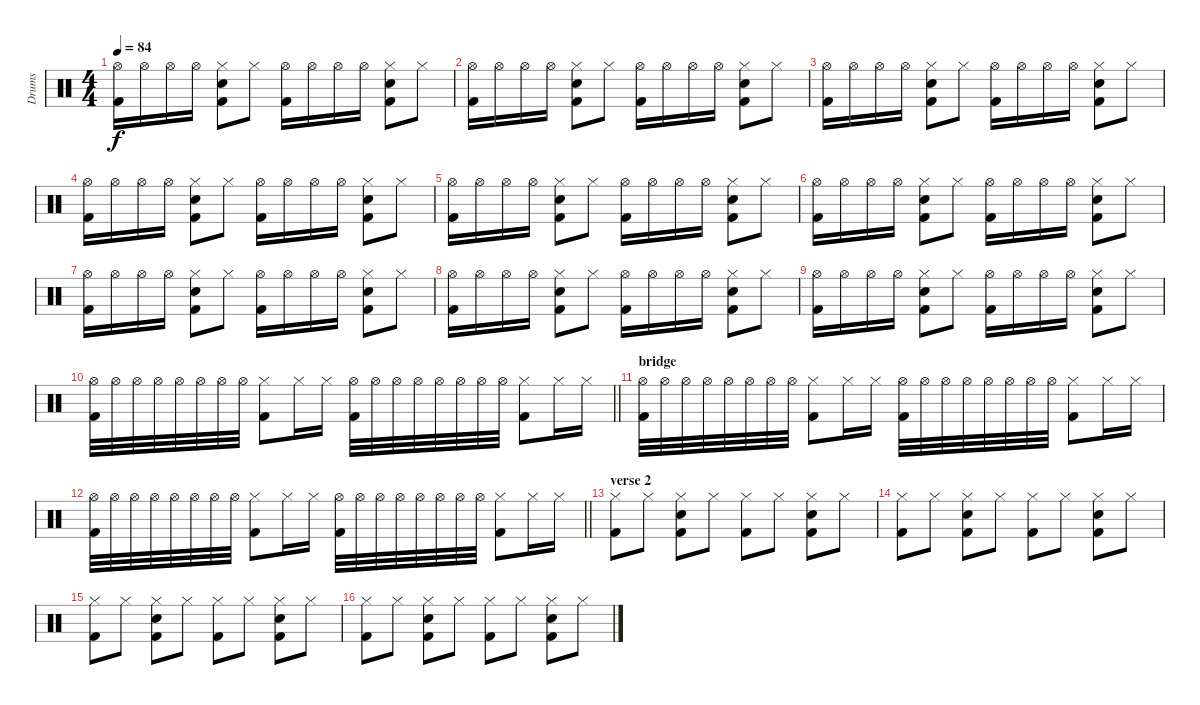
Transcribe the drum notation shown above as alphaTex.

\track ("Drums" "Drums") {instrument percussion}
\staff {score}
\articulation defaults
\ts (4 4)
\tempo 84
\clef neutral
\ks c
("Hi-Hat (open)" "Kick (hit) 2").16{dy f} "Hi-Hat (open)".16 "Hi-Hat (open)".16 "Hi-Hat (open)".16 ("Hi-Hat (closed)" "Snare (hit) 2" "Kick (hit) 2").8 "Hi-Hat (closed)".8 ("Hi-Hat (open)" "Kick (hit) 2").16 "Hi-Hat (open)".16 "Hi-Hat (open)".16 "Hi-Hat (open)".16 ("Hi-Hat (closed)" "Snare (hit) 2" "Kick (hit) 2").8 "Hi-Hat (closed)".8 |
("Hi-Hat (open)" "Kick (hit) 2").16 "Hi-Hat (open)".16 "Hi-Hat (open)".16 "Hi-Hat (open)".16 ("Hi-Hat (closed)" "Snare (hit) 2" "Kick (hit) 2").8 "Hi-Hat (closed)".8 ("Hi-Hat (open)" "Kick (hit) 2").16 "Hi-Hat (open)".16 "Hi-Hat (open)".16 "Hi-Hat (open)".16 ("Hi-Hat (closed)" "Snare (hit) 2" "Kick (hit) 2").8 "Hi-Hat (closed)".8 |
("Hi-Hat (open)" "Kick (hit) 2").16 "Hi-Hat (open)".16 "Hi-Hat (open)".16 "Hi-Hat (open)".16 ("Hi-Hat (closed)" "Snare (hit) 2" "Kick (hit) 2").8 "Hi-Hat (closed)".8 ("Hi-Hat (open)" "Kick (hit) 2").16 "Hi-Hat (open)".16 "Hi-Hat (open)".16 "Hi-Hat (open)".16 ("Hi-Hat (closed)" "Snare (hit) 2" "Kick (hit) 2").8 "Hi-Hat (closed)".8 |
("Hi-Hat (open)" "Kick (hit) 2").16 "Hi-Hat (open)".16 "Hi-Hat (open)".16 "Hi-Hat (open)".16 ("Hi-Hat (closed)" "Snare (hit) 2" "Kick (hit) 2").8 "Hi-Hat (closed)".8 ("Hi-Hat (open)" "Kick (hit) 2").16 "Hi-Hat (open)".16 "Hi-Hat (open)".16 "Hi-Hat (open)".16 ("Hi-Hat (closed)" "Snare (hit) 2" "Kick (hit) 2").8 "Hi-Hat (closed)".8 |
("Hi-Hat (open)" "Kick (hit) 2").16 "Hi-Hat (open)".16 "Hi-Hat (open)".16 "Hi-Hat (open)".16 ("Hi-Hat (closed)" "Snare (hit) 2" "Kick (hit) 2").8 "Hi-Hat (closed)".8 ("Hi-Hat (open)" "Kick (hit) 2").16 "Hi-Hat (open)".16 "Hi-Hat (open)".16 "Hi-Hat (open)".16 ("Hi-Hat (closed)" "Snare (hit) 2" "Kick (hit) 2").8 "Hi-Hat (closed)".8 |
("Hi-Hat (open)" "Kick (hit) 2").16 "Hi-Hat (open)".16 "Hi-Hat (open)".16 "Hi-Hat (open)".16 ("Hi-Hat (closed)" "Snare (hit) 2" "Kick (hit) 2").8 "Hi-Hat (closed)".8 ("Hi-Hat (open)" "Kick (hit) 2").16 "Hi-Hat (open)".16 "Hi-Hat (open)".16 "Hi-Hat (open)".16 ("Hi-Hat (closed)" "Snare (hit) 2" "Kick (hit) 2").8 "Hi-Hat (closed)".8 |
("Hi-Hat (open)" "Kick (hit) 2").16 "Hi-Hat (open)".16 "Hi-Hat (open)".16 "Hi-Hat (open)".16 ("Hi-Hat (closed)" "Snare (hit) 2" "Kick (hit) 2").8 "Hi-Hat (closed)".8 ("Hi-Hat (open)" "Kick (hit) 2").16 "Hi-Hat (open)".16 "Hi-Hat (open)".16 "Hi-Hat (open)".16 ("Hi-Hat (closed)" "Snare (hit) 2" "Kick (hit) 2").8 "Hi-Hat (closed)".8 |
("Hi-Hat (open)" "Kick (hit) 2").16 "Hi-Hat (open)".16 "Hi-Hat (open)".16 "Hi-Hat (open)".16 ("Hi-Hat (closed)" "Snare (hit) 2" "Kick (hit) 2").8 "Hi-Hat (closed)".8 ("Hi-Hat (open)" "Kick (hit) 2").16 "Hi-Hat (open)".16 "Hi-Hat (open)".16 "Hi-Hat (open)".16 ("Hi-Hat (closed)" "Snare (hit) 2" "Kick (hit) 2").8 "Hi-Hat (closed)".8 |
("Hi-Hat (open)" "Kick (hit) 2").16 "Hi-Hat (open)".16 "Hi-Hat (open)".16 "Hi-Hat (open)".16 ("Hi-Hat (closed)" "Snare (hit) 2" "Kick (hit) 2").8 "Hi-Hat (closed)".8 ("Hi-Hat (open)" "Kick (hit) 2").16 "Hi-Hat (open)".16 "Hi-Hat (open)".16 "Hi-Hat (open)".16 ("Hi-Hat (closed)" "Snare (hit) 2" "Kick (hit) 2").8 "Hi-Hat (closed)".8 |
\barLineRight lightlight
("Hi-Hat (open)" "Kick (hit) 2").32 "Hi-Hat (open)".32 "Hi-Hat (open)".32 "Hi-Hat (open)".32 "Hi-Hat (open)".32 "Hi-Hat (open)".32 "Hi-Hat (open)".32 "Hi-Hat (open)".32 ("Hi-Hat (closed)" "Kick (hit) 2").8 "Hi-Hat (closed)".16 "Hi-Hat (closed)".16 ("Hi-Hat (open)" "Kick (hit) 2").32 "Hi-Hat (open)".32 "Hi-Hat (open)".32 "Hi-Hat (open)".32 "Hi-Hat (open)".32 "Hi-Hat (open)".32 "Hi-Hat (open)".32 "Hi-Hat (open)".32 ("Hi-Hat (closed)" "Kick (hit) 2").8 "Hi-Hat (closed)".16 "Hi-Hat (closed)".16 |
\section ("" "bridge")
("Hi-Hat (open)" "Kick (hit) 2").32 "Hi-Hat (open)".32 "Hi-Hat (open)".32 "Hi-Hat (open)".32 "Hi-Hat (open)".32 "Hi-Hat (open)".32 "Hi-Hat (open)".32 "Hi-Hat (open)".32 ("Hi-Hat (closed)" "Kick (hit) 2").8 "Hi-Hat (closed)".16 "Hi-Hat (closed)".16 ("Hi-Hat (open)" "Kick (hit) 2").32 "Hi-Hat (open)".32 "Hi-Hat (open)".32 "Hi-Hat (open)".32 "Hi-Hat (open)".32 "Hi-Hat (open)".32 "Hi-Hat (open)".32 "Hi-Hat (open)".32 ("Hi-Hat (closed)" "Kick (hit) 2").8 "Hi-Hat (closed)".16 "Hi-Hat (closed)".16 |
\barLineRight lightlight
("Hi-Hat (open)" "Kick (hit) 2").32 "Hi-Hat (open)".32 "Hi-Hat (open)".32 "Hi-Hat (open)".32 "Hi-Hat (open)".32 "Hi-Hat (open)".32 "Hi-Hat (open)".32 "Hi-Hat (open)".32 ("Hi-Hat (closed)" "Kick (hit) 2").8 "Hi-Hat (closed)".16 "Hi-Hat (closed)".16 ("Hi-Hat (open)" "Kick (hit) 2").32 "Hi-Hat (open)".32 "Hi-Hat (open)".32 "Hi-Hat (open)".32 "Hi-Hat (open)".32 "Hi-Hat (open)".32 "Hi-Hat (open)".32 "Hi-Hat (open)".32 ("Hi-Hat (closed)" "Kick (hit) 2").8 "Hi-Hat (closed)".16 "Hi-Hat (closed)".16 |
\section ("" "verse 2")
("Hi-Hat (closed)" "Kick (hit) 2").8 "Hi-Hat (closed)".8 ("Hi-Hat (closed)" "Snare (hit) 2" "Kick (hit) 2").8 "Hi-Hat (closed)".8 ("Hi-Hat (closed)" "Kick (hit) 2").8 "Hi-Hat (closed)".8 ("Hi-Hat (closed)" "Snare (hit) 2" "Kick (hit) 2").8 "Hi-Hat (closed)".8 |
("Hi-Hat (closed)" "Kick (hit) 2").8 "Hi-Hat (closed)".8 ("Hi-Hat (closed)" "Snare (hit) 2" "Kick (hit) 2").8 "Hi-Hat (closed)".8 ("Hi-Hat (closed)" "Kick (hit) 2").8 "Hi-Hat (closed)".8 ("Hi-Hat (closed)" "Snare (hit) 2" "Kick (hit) 2").8 "Hi-Hat (closed)".8 |
("Hi-Hat (closed)" "Kick (hit) 2").8 "Hi-Hat (closed)".8 ("Hi-Hat (closed)" "Snare (hit) 2" "Kick (hit) 2").8 "Hi-Hat (closed)".8 ("Hi-Hat (closed)" "Kick (hit) 2").8 "Hi-Hat (closed)".8 ("Hi-Hat (closed)" "Snare (hit) 2" "Kick (hit) 2").8 "Hi-Hat (closed)".8 |
("Hi-Hat (closed)" "Kick (hit) 2").8 "Hi-Hat (closed)".8 ("Hi-Hat (closed)" "Snare (hit) 2" "Kick (hit) 2").8 "Hi-Hat (closed)".8 ("Hi-Hat (closed)" "Kick (hit) 2").8 "Hi-Hat (closed)".8 ("Hi-Hat (closed)" "Snare (hit) 2" "Kick (hit) 2").8 "Hi-Hat (closed)".8
